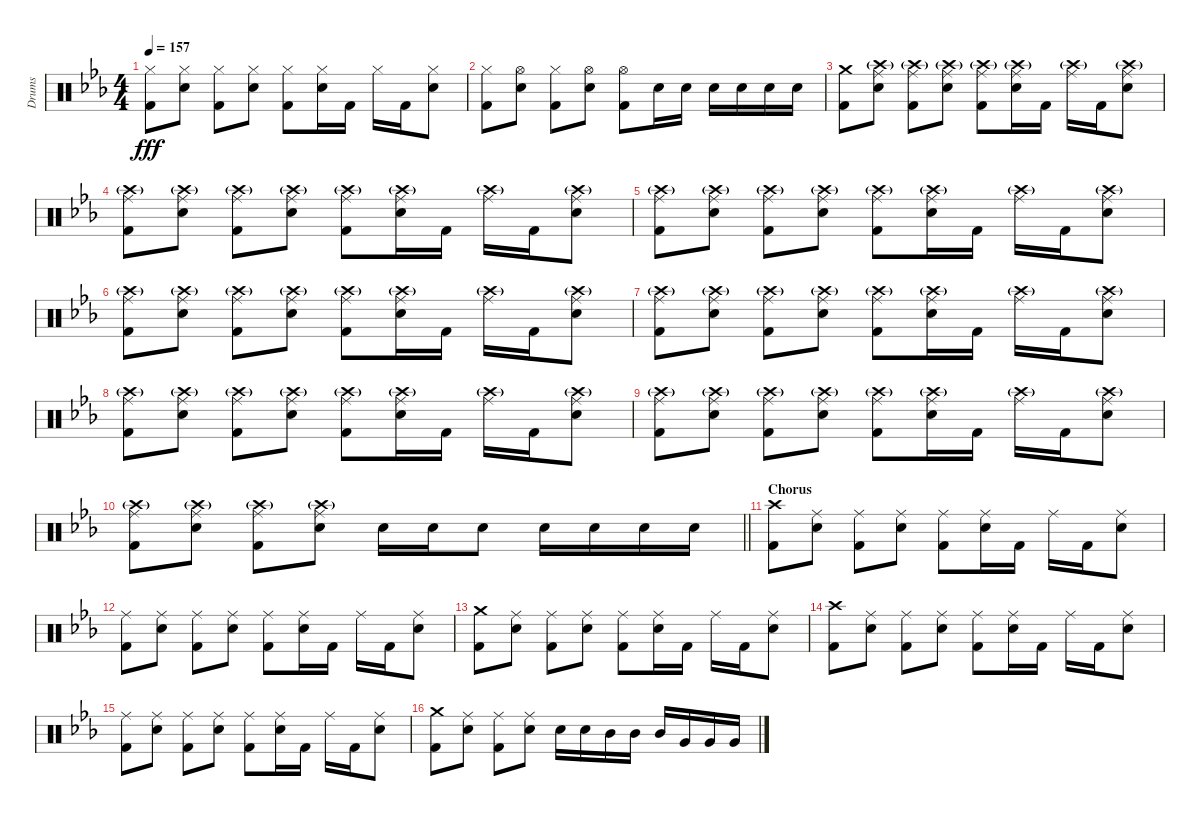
\track ("Drums" "Drums") {instrument percussion}
\staff {score}
\articulation defaults
\ts (4 4)
\tempo 157
\clef neutral
\ks eb
("Hi-Hat (closed)" "Kick (hit) 2").8{dy fff} ("Hi-Hat (closed)" "Snare (hit) 2").8 ("Hi-Hat (closed)" "Kick (hit) 2").8 ("Hi-Hat (closed)" "Snare (hit) 2").8 ("Hi-Hat (closed)" "Kick (hit) 2").8 ("Hi-Hat (closed)" "Snare (hit) 2").16 "Kick (hit) 2".16 "Hi-Hat (closed)".16 "Kick (hit) 2".16 ("Hi-Hat (closed)" "Snare (hit) 2").8 |
("Hi-Hat (closed)" "Kick (hit) 2").8 ("Hi-Hat (open)" "Snare (hit) 2").8 ("Hi-Hat (closed)" "Kick (hit) 2").8 ("Hi-Hat (open)" "Snare (hit) 2").8 ("Hi-Hat (open)" "Kick (hit) 2").8 "Snare (hit) 2".16 "Snare (hit) 2".16 "Snare (hit) 2".16 "Snare (hit) 2".16 "Snare (hit) 2".16 "Snare (hit) 2".16 |
("Crash medium (hit)" "Kick (hit) 2").8 ("Crash high (hit)"{g} "Ride (middle)" "Snare (hit) 2").8 ("Crash high (hit)"{g} "Ride (middle)" "Kick (hit) 2").8 ("Crash high (hit)"{g} "Ride (middle)" "Snare (hit) 2").8 ("Crash high (hit)"{g} "Ride (middle)" "Kick (hit) 2").8 ("Crash high (hit)"{g} "Ride (middle)" "Snare (hit) 2").16 "Kick (hit) 2".16 ("Crash high (hit)"{g} "Ride (middle)").16 "Kick (hit) 2".16 ("Crash high (hit)"{g} "Ride (middle)" "Snare (hit) 2").8 |
("Crash high (hit)"{g} "Ride (middle)" "Kick (hit) 2").8 ("Crash high (hit)"{g} "Ride (middle)" "Snare (hit) 2").8 ("Crash high (hit)"{g} "Ride (middle)" "Kick (hit) 2").8 ("Crash high (hit)"{g} "Ride (middle)" "Snare (hit) 2").8 ("Crash high (hit)"{g} "Ride (middle)" "Kick (hit) 2").8 ("Crash high (hit)"{g} "Ride (middle)" "Snare (hit) 2").16 "Kick (hit) 2".16 ("Crash high (hit)"{g} "Ride (middle)").16 "Kick (hit) 2".16 ("Crash high (hit)"{g} "Ride (middle)" "Snare (hit) 2").8 |
("Crash high (hit)"{g} "Ride (middle)" "Kick (hit) 2").8 ("Crash high (hit)"{g} "Ride (middle)" "Snare (hit) 2").8 ("Crash high (hit)"{g} "Ride (middle)" "Kick (hit) 2").8 ("Crash high (hit)"{g} "Ride (middle)" "Snare (hit) 2").8 ("Crash high (hit)"{g} "Ride (middle)" "Kick (hit) 2").8 ("Crash high (hit)"{g} "Ride (middle)" "Snare (hit) 2").16 "Kick (hit) 2".16 ("Crash high (hit)"{g} "Ride (middle)").16 "Kick (hit) 2".16 ("Crash high (hit)"{g} "Ride (middle)" "Snare (hit) 2").8 |
("Crash high (hit)"{g} "Ride (middle)" "Kick (hit) 2").8 ("Crash high (hit)"{g} "Ride (middle)" "Snare (hit) 2").8 ("Crash high (hit)"{g} "Ride (middle)" "Kick (hit) 2").8 ("Crash high (hit)"{g} "Ride (middle)" "Snare (hit) 2").8 ("Crash high (hit)"{g} "Ride (middle)" "Kick (hit) 2").8 ("Crash high (hit)"{g} "Ride (middle)" "Snare (hit) 2").16 "Kick (hit) 2".16 ("Crash high (hit)"{g} "Ride (middle)").16 "Kick (hit) 2".16 ("Crash high (hit)"{g} "Ride (middle)" "Snare (hit) 2").8 |
("Crash high (hit)"{g} "Ride (middle)" "Kick (hit) 2").8 ("Crash high (hit)"{g} "Ride (middle)" "Snare (hit) 2").8 ("Crash high (hit)"{g} "Ride (middle)" "Kick (hit) 2").8 ("Crash high (hit)"{g} "Ride (middle)" "Snare (hit) 2").8 ("Crash high (hit)"{g} "Ride (middle)" "Kick (hit) 2").8 ("Crash high (hit)"{g} "Ride (middle)" "Snare (hit) 2").16 "Kick (hit) 2".16 ("Crash high (hit)"{g} "Ride (middle)").16 "Kick (hit) 2".16 ("Crash high (hit)"{g} "Ride (middle)" "Snare (hit) 2").8 |
("Crash high (hit)"{g} "Ride (middle)" "Kick (hit) 2").8 ("Crash high (hit)"{g} "Ride (middle)" "Snare (hit) 2").8 ("Crash high (hit)"{g} "Ride (middle)" "Kick (hit) 2").8 ("Crash high (hit)"{g} "Ride (middle)" "Snare (hit) 2").8 ("Crash high (hit)"{g} "Ride (middle)" "Kick (hit) 2").8 ("Crash high (hit)"{g} "Ride (middle)" "Snare (hit) 2").16 "Kick (hit) 2".16 ("Crash high (hit)"{g} "Ride (middle)").16 "Kick (hit) 2".16 ("Crash high (hit)"{g} "Ride (middle)" "Snare (hit) 2").8 |
("Crash high (hit)"{g} "Ride (middle)" "Kick (hit) 2").8 ("Crash high (hit)"{g} "Ride (middle)" "Snare (hit) 2").8 ("Crash high (hit)"{g} "Ride (middle)" "Kick (hit) 2").8 ("Crash high (hit)"{g} "Ride (middle)" "Snare (hit) 2").8 ("Crash high (hit)"{g} "Ride (middle)" "Kick (hit) 2").8 ("Crash high (hit)"{g} "Ride (middle)" "Snare (hit) 2").16 "Kick (hit) 2".16 ("Crash high (hit)"{g} "Ride (middle)").16 "Kick (hit) 2".16 ("Crash high (hit)"{g} "Ride (middle)" "Snare (hit) 2").8 |
\barLineRight lightlight
("Crash high (hit)"{g} "Ride (middle)" "Kick (hit) 2").8 ("Crash high (hit)"{g} "Ride (middle)" "Snare (hit) 2").8 ("Crash high (hit)"{g} "Ride (middle)" "Kick (hit) 2").8 ("Crash high (hit)"{g} "Ride (middle)" "Snare (hit) 2").8 "Snare (hit) 2".16 "Snare (hit) 2".16 "Snare (hit) 2".8 "Snare (hit) 2".16 "Snare (hit) 2".16 "Snare (hit) 2".16 "Snare (hit) 2".16 |
\section ("" "Chorus")
("Crash high (hit)" "Kick (hit) 2").8 ("Ride (middle)" "Snare (hit) 2").8 ("Ride (middle)" "Kick (hit) 2").8 ("Ride (middle)" "Snare (hit) 2").8 ("Ride (middle)" "Kick (hit) 2").8 ("Ride (middle)" "Snare (hit) 2").16 "Kick (hit) 2".16 "Ride (middle)".16 "Kick (hit) 2".16 ("Ride (middle)" "Snare (hit) 2").8 |
("Ride (middle)" "Kick (hit) 2").8 ("Ride (middle)" "Snare (hit) 2").8 ("Ride (middle)" "Kick (hit) 2").8 ("Ride (middle)" "Snare (hit) 2").8 ("Ride (middle)" "Kick (hit) 2").8 ("Ride (middle)" "Snare (hit) 2").16 "Kick (hit) 2".16 "Ride (middle)".16 "Kick (hit) 2".16 ("Ride (middle)" "Snare (hit) 2").8 |
("Crash medium (hit)" "Kick (hit) 2").8 ("Ride (middle)" "Snare (hit) 2").8 ("Ride (middle)" "Kick (hit) 2").8 ("Ride (middle)" "Snare (hit) 2").8 ("Ride (middle)" "Kick (hit) 2").8 ("Ride (middle)" "Snare (hit) 2").16 "Kick (hit) 2".16 "Ride (middle)".16 "Kick (hit) 2".16 ("Ride (middle)" "Snare (hit) 2").8 |
("Crash high (hit)" "Kick (hit) 2").8 ("Ride (middle)" "Snare (hit) 2").8 ("Ride (middle)" "Kick (hit) 2").8 ("Ride (middle)" "Snare (hit) 2").8 ("Ride (middle)" "Kick (hit) 2").8 ("Ride (middle)" "Snare (hit) 2").16 "Kick (hit) 2".16 "Ride (middle)".16 "Kick (hit) 2".16 ("Ride (middle)" "Snare (hit) 2").8 |
("Ride (middle)" "Kick (hit) 2").8 ("Ride (middle)" "Snare (hit) 2").8 ("Ride (middle)" "Kick (hit) 2").8 ("Ride (middle)" "Snare (hit) 2").8 ("Ride (middle)" "Kick (hit) 2").8 ("Ride (middle)" "Snare (hit) 2").16 "Kick (hit) 2".16 "Ride (middle)".16 "Kick (hit) 2".16 ("Ride (middle)" "Snare (hit) 2").8 |
("Crash medium (hit)" "Kick (hit) 2").8 ("Ride (middle)" "Snare (hit) 2").8 ("Ride (middle)" "Kick (hit) 2").8 ("Ride (middle)" "Snare (hit) 2").8 "Snare (hit) 2".16 "Snare (hit) 2".16 "Mid Tom (hit)".16 "Mid Tom (hit)".16 "Mid Tom (hit)".16 "Very Low Tom (hit)".16 "Very Low Tom (hit)".16 "Very Low Tom (hit)".16
